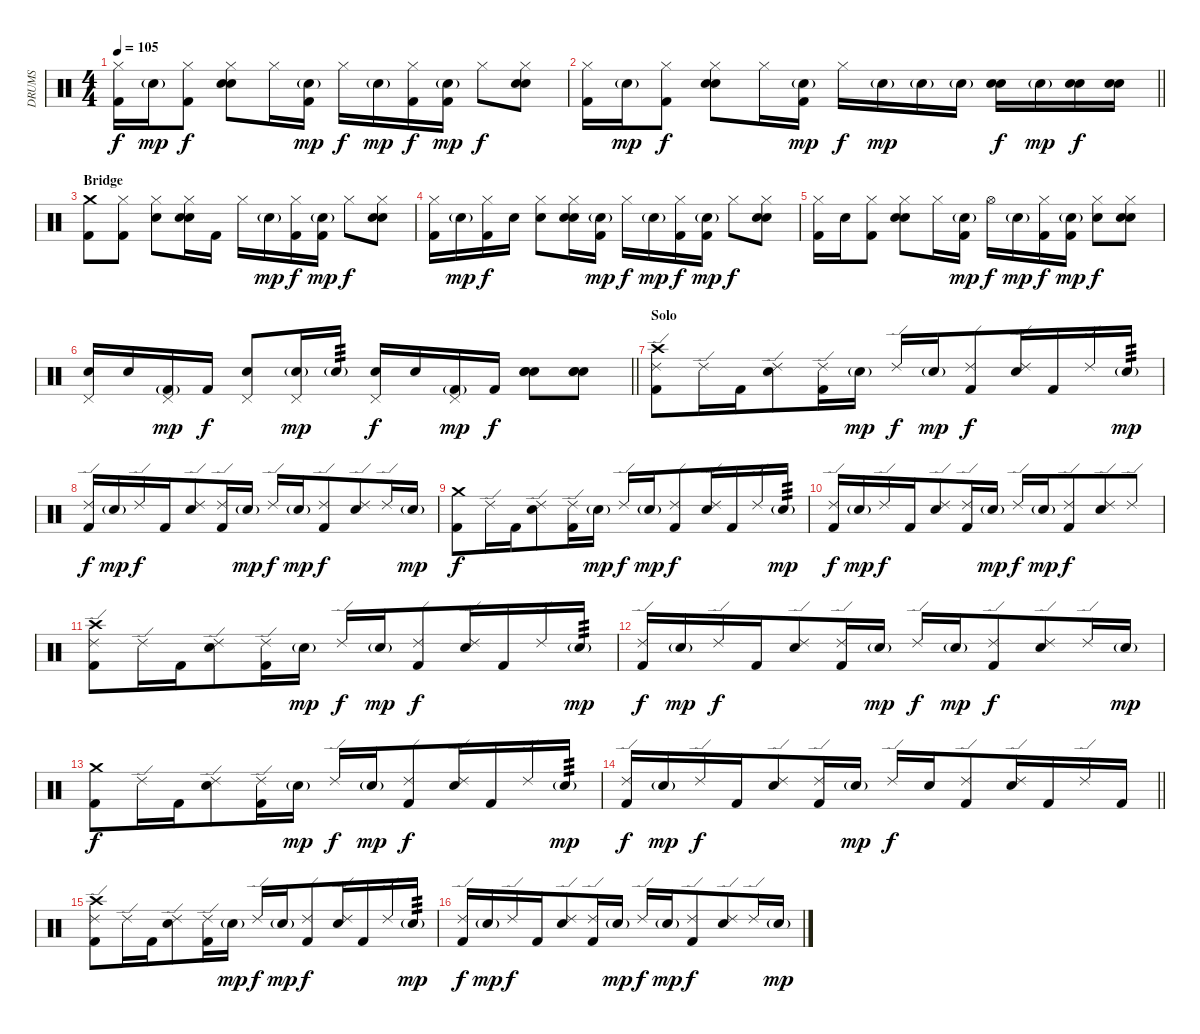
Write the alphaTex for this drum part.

\track ("DRUMS" "DRUMS") {instrument percussion bank 148}
\staff {score}
\articulation defaults
\ts (4 4)
\tempo 105
\clef neutral
\ks c
("Hi-Hat (closed)" "Kick (hit) 2").16{dy f} "Electric Snare (hit)"{g}.16{dy mp} ("Hi-Hat (closed)" "Kick (hit) 2").8{dy f} ("Hi-Hat (closed)" "Electric Snare (hit)" "Hand Clap (hit)").8{beam merge} "Hi-Hat (closed)".16 ("Electric Snare (hit)"{g} "Kick (hit) 2").16{dy mp} "Hi-Hat (closed)".16{dy f} "Electric Snare (hit)"{g}.16{dy mp} ("Hi-Hat (closed)" "Kick (hit) 2").16{dy f} ("Electric Snare (hit)"{g} "Kick (hit) 2").16{dy mp} "Hi-Hat (closed)".8{dy f} ("Hi-Hat (closed)" "Electric Snare (hit)" "Hand Clap (hit)").8 |
\barLineRight lightlight
("Hi-Hat (closed)" "Kick (hit) 2").16 "Electric Snare (hit)"{g}.16{dy mp} ("Hi-Hat (closed)" "Kick (hit) 2").8{dy f} ("Hi-Hat (closed)" "Electric Snare (hit)" "Hand Clap (hit)").8{beam merge} "Hi-Hat (closed)".16 ("Electric Snare (hit)"{g} "Kick (hit) 2").16{dy mp} "Hi-Hat (closed)".16{dy f} "Electric Snare (hit)"{g}.16{dy mp} "Electric Snare (hit)"{g}.16 "Electric Snare (hit)"{g}.16 ("Electric Snare (hit)" "Hand Clap (hit)").16{dy f} "Electric Snare (hit)"{g}.16{dy mp} ("Electric Snare (hit)" "Hand Clap (hit)").16{dy f} ("Electric Snare (hit)" "Hand Clap (hit)").16 |
\section ("" "Bridge")
("Crash medium (hit)" "Kick (hit) 2").8 ("Hi-Hat (closed)" "Kick (hit) 2").8 ("Hi-Hat (closed)" "Hand Clap (hit)").8{beam merge} ("Hi-Hat (closed)" "Snare (hit) 2" "Hand Clap (hit)").16 "Kick (hit) 2".16 "Hi-Hat (closed)".16 "Electric Snare (hit)"{g}.16{dy mp} ("Hi-Hat (closed)" "Kick (hit) 2").16{dy f} ("Electric Snare (hit)"{g} "Kick (hit) 2").16{dy mp} "Hi-Hat (closed)".8{dy f} ("Hi-Hat (closed)" "Snare (hit) 2" "Hand Clap (hit)").8 |
("Hi-Hat (closed)" "Kick (hit) 2").16 "Electric Snare (hit)"{g}.16{dy mp} ("Hi-Hat (closed)" "Kick (hit) 2").16{dy f} "Snare (hit) 2".16 ("Hi-Hat (closed)" "Hand Clap (hit)").8{beam merge} ("Hi-Hat (closed)" "Snare (hit) 2" "Hand Clap (hit)").16 ("Electric Snare (hit)"{g} "Kick (hit) 2").16{dy mp} "Hi-Hat (closed)".16{dy f} "Electric Snare (hit)"{g}.16{dy mp} ("Hi-Hat (closed)" "Kick (hit) 2").16{dy f} ("Electric Snare (hit)"{g} "Kick (hit) 2").16{dy mp} "Hi-Hat (closed)".8{dy f} ("Hi-Hat (closed)" "Snare (hit) 2" "Hand Clap (hit)").8 |
("Hi-Hat (closed)" "Kick (hit) 2").16 "Electric Snare (hit)".16 ("Hi-Hat (closed)" "Kick (hit) 2").8 ("Hi-Hat (closed)" "Electric Snare (hit)" "Hand Clap (hit)").8{beam merge} "Hi-Hat (closed)".16 ("Electric Snare (hit)"{g} "Kick (hit) 2").16{dy mp} "Hi-Hat (open)".16{dy f} "Electric Snare (hit)"{g}.16{dy mp} ("Hi-Hat (closed)" "Kick (hit) 2").16{dy f} ("Electric Snare (hit)"{g} "Kick (hit) 2").16{dy mp} ("Hi-Hat (closed)" "Hand Clap (hit)").8{dy f} ("Hi-Hat (closed)" "Electric Snare (hit)" "Hand Clap (hit)").8 |
\barLineRight lightlight
("Pedal Hi-Hat (hit)" "Electric Snare (hit)").16 "Electric Snare (hit)".16{beam merge} ("Pedal Hi-Hat (hit)" "Kick (hit) 2"{g}).16{dy mp} "Kick (hit) 2".16{dy f} ("Pedal Hi-Hat (hit)" "Electric Snare (hit)").8 ("Pedal Hi-Hat (hit)" "Electric Snare (hit)"{g}).16{dy mp} "Electric Snare (hit)"{g}.16{tp 3} ("Pedal Hi-Hat (hit)" "Electric Snare (hit)").16{dy f} "Electric Snare (hit)".16 ("Pedal Hi-Hat (hit)" "Kick (hit) 2"{g}).16{dy mp} "Kick (hit) 2".16{dy f} ("Snare (hit) 2" "Electric Snare (hit)" "Hand Clap (hit)").8 ("Snare (hit) 2" "Electric Snare (hit)" "Hand Clap (hit)").8 |
\section ("" "Solo")
("Ride (edge) 2" "Crash high (hit)" "Kick (hit) 2").8{beam merge} "Ride (edge) 2".16 "Kick (hit) 2".16{beam merge} ("Ride (edge) 2" "Electric Snare (hit)").8 ("Ride (edge) 2" "Kick (hit) 2").16{beam merge} "Electric Snare (hit)"{g}.16{dy mp} "Ride (edge) 2".16{dy f} "Electric Snare (hit)"{g}.16{dy mp beam merge} ("Ride (edge) 2" "Kick (hit) 2").8{dy f beam merge} ("Ride (edge) 2" "Electric Snare (hit)").16 "Kick (hit) 2".16 "Ride (edge) 2".16 "Electric Snare (hit)"{g}.16{tp 3 dy mp} |
("Ride (edge) 2" "Kick (hit) 2").16{dy f} "Electric Snare (hit)"{g}.16{dy mp} "Ride (edge) 2".16{dy f} "Kick (hit) 2".16{beam merge} ("Ride (edge) 2" "Electric Snare (hit)").8 ("Ride (edge) 2" "Kick (hit) 2").16 "Electric Snare (hit)"{g}.16{dy mp} "Ride (edge) 2".16{dy f beam merge} "Electric Snare (hit)"{g}.16{dy mp beam merge} ("Ride (edge) 2" "Kick (hit) 2").8{dy f beam merge} ("Ride (edge) 2" "Electric Snare (hit)").8 "Ride (edge) 2".16 "Electric Snare (hit)"{g}.16{dy mp} |
("Crash medium (hit)" "Kick (hit) 2").8{dy f beam merge} "Ride (edge) 2".16 "Kick (hit) 2".16{beam merge} ("Ride (edge) 2" "Electric Snare (hit)").8 ("Ride (edge) 2" "Kick (hit) 2").16{beam merge} "Electric Snare (hit)"{g}.16{dy mp} "Ride (edge) 2".16{dy f} "Electric Snare (hit)"{g}.16{dy mp beam merge} ("Ride (edge) 2" "Kick (hit) 2").8{dy f beam merge} ("Ride (edge) 2" "Electric Snare (hit)").16 "Kick (hit) 2".16 "Ride (edge) 2".16 "Electric Snare (hit)"{g}.16{tp 3 dy mp} |
("Ride (edge) 2" "Kick (hit) 2").16{dy f} "Electric Snare (hit)"{g}.16{dy mp} "Ride (edge) 2".16{dy f} "Kick (hit) 2".16{beam merge} ("Ride (edge) 2" "Electric Snare (hit)").8 ("Ride (edge) 2" "Kick (hit) 2").16 "Electric Snare (hit)"{g}.16{dy mp} "Ride (edge) 2".16{dy f beam merge} "Electric Snare (hit)"{g}.16{dy mp beam merge} ("Ride (edge) 2" "Kick (hit) 2").8{dy f beam merge} ("Ride (edge) 2" "Electric Snare (hit)").8 "Ride (edge) 2".8 |
("Ride (edge) 2" "Crash high (hit)" "Kick (hit) 2").8{beam merge} "Ride (edge) 2".16 "Kick (hit) 2".16{beam merge} ("Ride (edge) 2" "Electric Snare (hit)").8 ("Ride (edge) 2" "Kick (hit) 2").16{beam merge} "Electric Snare (hit)"{g}.16{dy mp} "Ride (edge) 2".16{dy f} "Electric Snare (hit)"{g}.16{dy mp beam merge} ("Ride (edge) 2" "Kick (hit) 2").8{dy f beam merge} ("Ride (edge) 2" "Electric Snare (hit)").16 "Kick (hit) 2".16 "Ride (edge) 2".16 "Electric Snare (hit)"{g}.16{tp 3 dy mp} |
("Ride (edge) 2" "Kick (hit) 2").16{dy f} "Electric Snare (hit)"{g}.16{dy mp} "Ride (edge) 2".16{dy f} "Kick (hit) 2".16{beam merge} ("Ride (edge) 2" "Electric Snare (hit)").8 ("Ride (edge) 2" "Kick (hit) 2").16 "Electric Snare (hit)"{g}.16{dy mp} "Ride (edge) 2".16{dy f beam merge} "Electric Snare (hit)"{g}.16{dy mp beam merge} ("Ride (edge) 2" "Kick (hit) 2").8{dy f beam merge} ("Ride (edge) 2" "Electric Snare (hit)").8 "Ride (edge) 2".16 "Electric Snare (hit)"{g}.16{dy mp} |
("Crash medium (hit)" "Kick (hit) 2").8{dy f beam merge} "Ride (edge) 2".16 "Kick (hit) 2".16{beam merge} ("Ride (edge) 2" "Electric Snare (hit)").8 ("Ride (edge) 2" "Kick (hit) 2").16{beam merge} "Electric Snare (hit)"{g}.16{dy mp} "Ride (edge) 2".16{dy f} "Electric Snare (hit)"{g}.16{dy mp beam merge} ("Ride (edge) 2" "Kick (hit) 2").8{dy f beam merge} ("Ride (edge) 2" "Electric Snare (hit)").16 "Kick (hit) 2".16 "Ride (edge) 2".16 "Electric Snare (hit)"{g}.16{tp 3 dy mp} |
\barLineRight lightlight
("Ride (edge) 2" "Kick (hit) 2").16{dy f} "Electric Snare (hit)"{g}.16{dy mp} "Ride (edge) 2".16{dy f} "Kick (hit) 2".16{beam merge} ("Ride (edge) 2" "Electric Snare (hit)").8 ("Ride (edge) 2" "Kick (hit) 2").16 "Electric Snare (hit)"{g}.16{dy mp} "Ride (edge) 2".16{dy f beam merge} "Electric Snare (hit)".16{beam merge} ("Ride (edge) 2" "Kick (hit) 2").8{beam merge} ("Ride (edge) 2" "Electric Snare (hit)").16 "Kick (hit) 2".16 "Ride (edge) 2".16 "Kick (hit) 2".16 |
("Ride (edge) 2" "Crash high (hit)" "Kick (hit) 2").8{beam merge} "Ride (edge) 2".16 "Kick (hit) 2".16{beam merge} ("Ride (edge) 2" "Electric Snare (hit)").8 ("Ride (edge) 2" "Kick (hit) 2").16{beam merge} "Electric Snare (hit)"{g}.16{dy mp} "Ride (edge) 2".16{dy f} "Electric Snare (hit)"{g}.16{dy mp beam merge} ("Ride (edge) 2" "Kick (hit) 2").8{dy f beam merge} ("Ride (edge) 2" "Electric Snare (hit)").16 "Kick (hit) 2".16 "Ride (edge) 2".16 "Electric Snare (hit)"{g}.16{tp 3 dy mp} |
("Ride (edge) 2" "Kick (hit) 2").16{dy f} "Electric Snare (hit)"{g}.16{dy mp} "Ride (edge) 2".16{dy f} "Kick (hit) 2".16{beam merge} ("Ride (edge) 2" "Electric Snare (hit)").8 ("Ride (edge) 2" "Kick (hit) 2").16 "Electric Snare (hit)"{g}.16{dy mp} "Ride (edge) 2".16{dy f beam merge} "Electric Snare (hit)"{g}.16{dy mp beam merge} ("Ride (edge) 2" "Kick (hit) 2").8{dy f beam merge} ("Ride (edge) 2" "Electric Snare (hit)").8 "Ride (edge) 2".16 "Electric Snare (hit)"{g}.16{dy mp}
